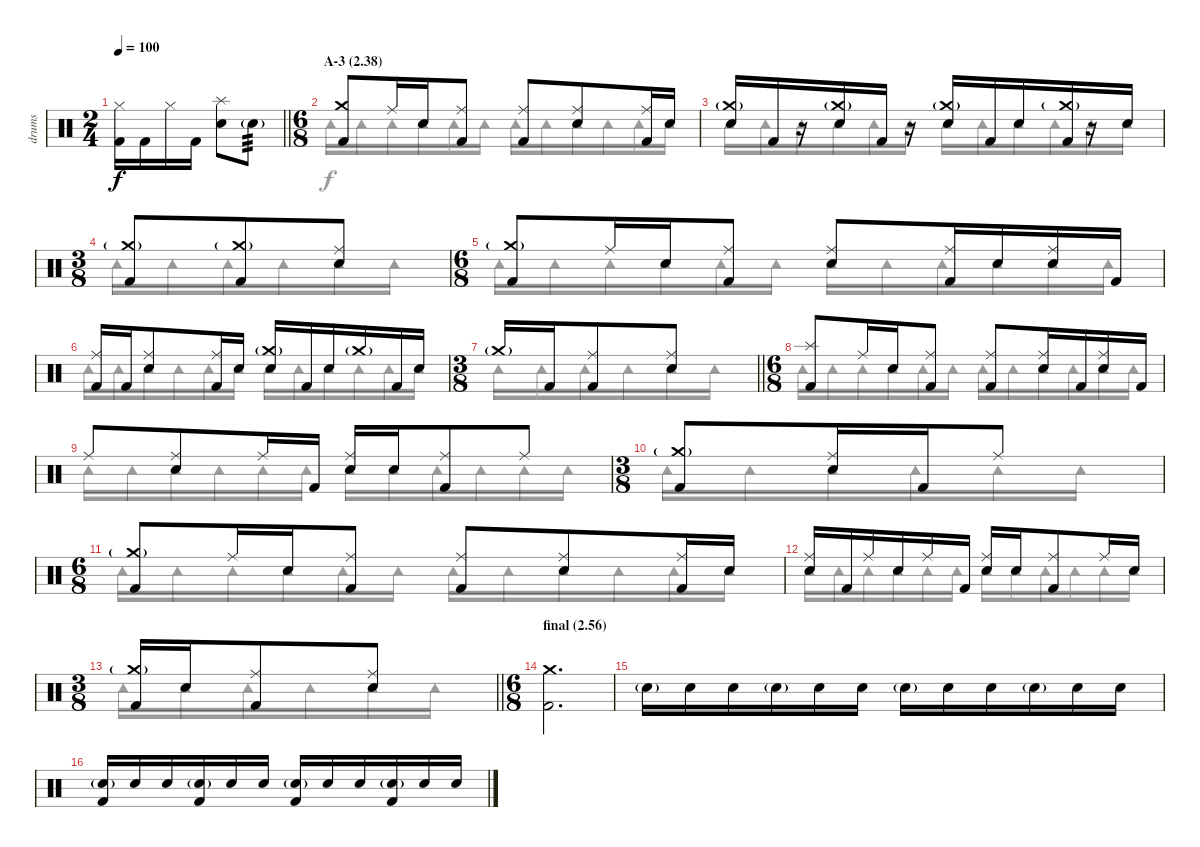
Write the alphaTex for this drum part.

\track ("drums" "drums") {instrument percussion}
\staff {score}
\articulation defaults
\voice
\ts (2 4)
\tempo 100
\clef neutral
\barLineRight lightlight
\ks c
("Hi-Hat (closed)" "Kick (hit) 2").16{dy f} "Kick (hit) 2".16 "Hi-Hat (closed)".16 "Kick (hit) 2".16 ("Splash (hit)" "Electric Snare (hit)").8 "Electric Snare (hit)"{g}.8{tp 3} |
\ts (6 8)
\section ("" "A-3 (2.38)")
("Crash medium (hit)" "Kick (hit) 2").8 "Ride (middle)".16 "Electric Snare (hit)".16 ("Ride (middle)" "Kick (hit) 2").8 ("Ride (middle)" "Kick (hit) 2").8 ("Ride (middle)" "Electric Snare (hit)").8 ("Ride (middle)" "Kick (hit) 2").16 "Electric Snare (hit)".16 |
("Crash medium (hit)"{g} "Electric Snare (hit)").16 "Kick (hit) 2".16 r.16 ("Crash medium (hit)"{g} "Electric Snare (hit)").16 "Kick (hit) 2".16 r.16 ("Crash medium (hit)"{g} "Electric Snare (hit)").16 "Kick (hit) 2".16 "Electric Snare (hit)".16 ("Crash medium (hit)"{g} "Kick (hit) 2").16 r.16 "Electric Snare (hit)".16 |
\ts (3 8)
("Crash medium (hit)"{g} "Kick (hit) 2").8 ("Crash medium (hit)"{g} "Kick (hit) 2").8 ("Ride (middle)" "Electric Snare (hit)").8 |
\ts (6 8)
("Crash medium (hit)"{g} "Kick (hit) 2").8 "Ride (middle)".16 "Electric Snare (hit)".16 ("Ride (middle)" "Kick (hit) 2").8 ("Ride (middle)" "Electric Snare (hit)").8 ("Ride (middle)" "Kick (hit) 2").16 "Electric Snare (hit)".16 ("Ride (middle)" "Electric Snare (hit)").16 "Kick (hit) 2".16 |
("Ride (middle)" "Kick (hit) 2").16 "Kick (hit) 2".16 ("Ride (middle)" "Electric Snare (hit)").8 ("Ride (middle)" "Kick (hit) 2").16 "Electric Snare (hit)".16 ("Crash medium (hit)"{g} "Electric Snare (hit)").16 "Kick (hit) 2".16 "Electric Snare (hit)".16 "Crash medium (hit)"{g}.16 "Kick (hit) 2".16 "Electric Snare (hit)".16 |
\ts (3 8)
\barLineRight lightlight "Crash medium (hit)"{g}.16 "Kick (hit) 2".16
("Ride (middle)" "Kick (hit) 2").8 ("Ride (middle)" "Electric Snare (hit)").8 |
\ts (6 8)
("Splash (hit)" "Kick (hit) 2").8 "Ride (middle)".16 "Electric Snare (hit)".16 ("Ride (middle)" "Kick (hit) 2").8 ("Ride (middle)" "Kick (hit) 2").8 ("Ride (middle)" "Electric Snare (hit)").16 "Kick (hit) 2".16 ("Ride (middle)" "Electric Snare (hit)").16 "Kick (hit) 2".16 |
"Ride (middle)".8 ("Ride (middle)" "Electric Snare (hit)").8 "Ride (middle)".16 "Kick (hit) 2".16 ("Ride (middle)" "Electric Snare (hit)").16 "Electric Snare (hit)".16 ("Ride (middle)" "Kick (hit) 2").8 "Ride (middle)".8 |
\ts (3 8)
("Crash medium (hit)"{g} "Kick (hit) 2").8 ("Ride (middle)" "Electric Snare (hit)").16 "Kick (hit) 2".16 "Ride (middle)".8 |
\ts (6 8)
("Crash medium (hit)"{g} "Kick (hit) 2").8 "Ride (middle)".16 "Electric Snare (hit)".16 ("Ride (middle)" "Kick (hit) 2").8 ("Ride (middle)" "Kick (hit) 2").8 ("Ride (middle)" "Electric Snare (hit)").8 ("Ride (middle)" "Kick (hit) 2").16 "Electric Snare (hit)".16 |
("Ride (middle)" "Electric Snare (hit)").16 "Kick (hit) 2".16 "Ride (middle)".16 "Electric Snare (hit)".16 "Ride (middle)".16 "Kick (hit) 2".16 ("Ride (middle)" "Electric Snare (hit)").16 "Electric Snare (hit)".16 ("Ride (middle)" "Kick (hit) 2").8 "Ride (middle)".16 "Electric Snare (hit)".16 |
\ts (3 8)
\barLineRight lightlight
("Crash medium (hit)"{g} "Kick (hit) 2").16 "Electric Snare (hit)".16 ("Ride (middle)" "Kick (hit) 2").8 ("Ride (middle)" "Electric Snare (hit)").8 |
\ts (6 8)
\section ("" "final (2.56)")
("Crash medium (hit)" "Kick (hit) 2").2{d} |
"Electric Snare (hit)"{g}.16 "Electric Snare (hit)".16 "Electric Snare (hit)".16 "Electric Snare (hit)"{g}.16 "Electric Snare (hit)".16 "Electric Snare (hit)".16 "Electric Snare (hit)"{g}.16 "Electric Snare (hit)".16 "Electric Snare (hit)".16 "Electric Snare (hit)"{g}.16 "Electric Snare (hit)".16 "Electric Snare (hit)".16 |
("Electric Snare (hit)"{g} "Kick (hit) 2").16 "Electric Snare (hit)".16 "Electric Snare (hit)".16 ("Electric Snare (hit)"{g} "Kick (hit) 2").16 "Electric Snare (hit)".16 "Electric Snare (hit)".16 ("Electric Snare (hit)"{g} "Kick (hit) 2").16 "Electric Snare (hit)".16 "Electric Snare (hit)".16 ("Electric Snare (hit)"{g} "Kick (hit) 2").16 "Electric Snare (hit)".16 "Electric Snare (hit)".16
\voice
\clef neutral
\ottava regular
\simile none
\barLineRight lightlight
\ks c
|
"Tambourine (hit)".16 "Tambourine (hit)".16 "Tambourine (hit)".16 "Tambourine (hit)".16 "Tambourine (hit)".16 "Tambourine (hit)".16 "Tambourine (hit)".16 "Tambourine (hit)".16 "Tambourine (hit)".16 "Tambourine (hit)".16 "Tambourine (hit)".16 "Tambourine (hit)".16 |
"Tambourine (hit)".16 "Tambourine (hit)".16 "Tambourine (hit)".16 "Tambourine (hit)".16 "Tambourine (hit)".16 "Tambourine (hit)".16 "Tambourine (hit)".16 "Tambourine (hit)".16 "Tambourine (hit)".16 "Tambourine (hit)".16 "Tambourine (hit)".16 "Tambourine (hit)".16 |
"Tambourine (hit)".16 "Tambourine (hit)".16 "Tambourine (hit)".16 "Tambourine (hit)".16 "Tambourine (hit)".16 "Tambourine (hit)".16 |
"Tambourine (hit)".16 "Tambourine (hit)".16 "Tambourine (hit)".16 "Tambourine (hit)".16 "Tambourine (hit)".16 "Tambourine (hit)".16 "Tambourine (hit)".16 "Tambourine (hit)".16 "Tambourine (hit)".16 "Tambourine (hit)".16 "Tambourine (hit)".16 "Tambourine (hit)".16 |
"Tambourine (hit)".16 "Tambourine (hit)".16 "Tambourine (hit)".16 "Tambourine (hit)".16 "Tambourine (hit)".16 "Tambourine (hit)".16 "Tambourine (hit)".16 "Tambourine (hit)".16 "Tambourine (hit)".16 "Tambourine (hit)".16 "Tambourine (hit)".16 "Tambourine (hit)".16 |
\barLineRight lightlight "Tambourine (hit)".16 "Tambourine (hit)".16 "Tambourine (hit)".16 "Tambourine (hit)".16 "Tambourine (hit)".16 "Tambourine (hit)".16
|
"Tambourine (hit)".16 "Tambourine (hit)".16 "Tambourine (hit)".16 "Tambourine (hit)".16 "Tambourine (hit)".16 "Tambourine (hit)".16 "Tambourine (hit)".16 "Tambourine (hit)".16 "Tambourine (hit)".16 "Tambourine (hit)".16 "Tambourine (hit)".16 "Tambourine (hit)".16 |
"Tambourine (hit)".16 "Tambourine (hit)".16 "Tambourine (hit)".16 "Tambourine (hit)".16 "Tambourine (hit)".16 "Tambourine (hit)".16 "Tambourine (hit)".16 "Tambourine (hit)".16 "Tambourine (hit)".16 "Tambourine (hit)".16 "Tambourine (hit)".16 "Tambourine (hit)".16 |
"Tambourine (hit)".16 "Tambourine (hit)".16 "Tambourine (hit)".16 "Tambourine (hit)".16 "Tambourine (hit)".16 "Tambourine (hit)".16 |
"Tambourine (hit)".16 "Tambourine (hit)".16 "Tambourine (hit)".16 "Tambourine (hit)".16 "Tambourine (hit)".16 "Tambourine (hit)".16 "Tambourine (hit)".16 "Tambourine (hit)".16 "Tambourine (hit)".16 "Tambourine (hit)".16 "Tambourine (hit)".16 "Tambourine (hit)".16 |
"Tambourine (hit)".16 "Tambourine (hit)".16 "Tambourine (hit)".16 "Tambourine (hit)".16 "Tambourine (hit)".16 "Tambourine (hit)".16 "Tambourine (hit)".16 "Tambourine (hit)".16 "Tambourine (hit)".16 "Tambourine (hit)".16 "Tambourine (hit)".16 "Tambourine (hit)".16 |
\barLineRight lightlight "Tambourine (hit)".16 "Tambourine (hit)".16 "Tambourine (hit)".16 "Tambourine (hit)".16 "Tambourine (hit)".16 "Tambourine (hit)".16
|
|
|
